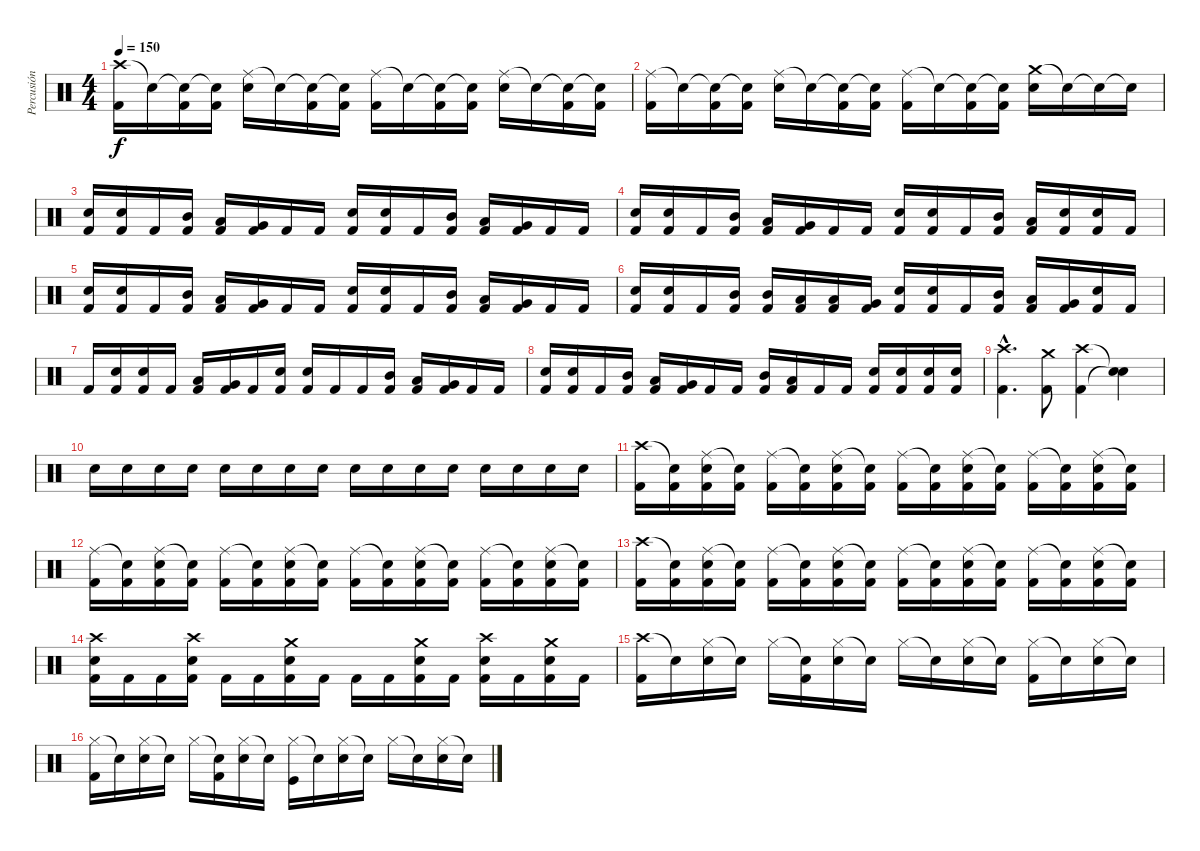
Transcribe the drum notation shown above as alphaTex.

\track ("Percusión" "Percusión") {instrument percussion}
\staff {score}
\articulation defaults
\ts (4 4)
\tempo 150
\clef neutral
\ks c
("Crash high (hit)" "Kick (hit) 2").16{dy f} "Snare (hit)"{t}.16 ("Snare (hit)"{t} "Kick (hit) 2").16 ("Snare (hit)"{t} "Kick (hit) 2").16 ("Ride (middle)" "Electric Snare (hit)").16 "Snare (hit)"{t}.16 ("Snare (hit)"{t} "Kick (hit) 2").16 ("Snare (hit)"{t} "Kick (hit) 2").16 ("Ride (middle)" "Kick (hit) 2").16 "Snare (hit)"{t}.16 ("Snare (hit)"{t} "Kick (hit) 2").16 ("Snare (hit)"{t} "Kick (hit) 2").16 ("Ride (middle)" "Electric Snare (hit)").16 "Snare (hit)"{t}.16 ("Snare (hit)"{t} "Kick (hit) 2").16 ("Snare (hit)"{t} "Kick (hit) 2").16 |
("Ride (middle)" "Kick (hit) 2").16 "Snare (hit)"{t}.16 ("Snare (hit)"{t} "Kick (hit) 2").16 ("Snare (hit)"{t} "Kick (hit) 2").16 ("Ride (middle)" "Electric Snare (hit)").16 "Snare (hit)"{t}.16 ("Snare (hit)"{t} "Kick (hit) 2").16 ("Snare (hit)"{t} "Kick (hit) 2").16 ("Ride (middle)" "Kick (hit) 2").16 "Snare (hit)"{t}.16 ("Snare (hit)"{t} "Kick (hit) 2").16 ("Snare (hit)"{t} "Kick (hit) 2").16 ("Crash medium (hit)" "Electric Snare (hit)").16 "Snare (hit)"{t}.16 "Snare (hit)"{t}.16 "Snare (hit)"{t}.16 |
("Electric Snare (hit)" "Kick (hit) 2").16 ("Electric Snare (hit)" "Kick (hit) 2").16 "Kick (hit) 2".16 ("Mid Tom (hit)" "Kick (hit) 2").16 ("Low Tom (hit)" "Kick (hit) 2").16 ("Very Low Tom (hit)" "Kick (hit) 2").16 "Kick (hit) 2".16 "Kick (hit) 2".16 ("Electric Snare (hit)" "Kick (hit) 2").16 ("Electric Snare (hit)" "Kick (hit) 2").16 "Kick (hit) 2".16 ("Mid Tom (hit)" "Kick (hit) 2").16 ("Low Tom (hit)" "Kick (hit) 2").16 ("Very Low Tom (hit)" "Kick (hit) 2").16 "Kick (hit) 2".16 "Kick (hit) 2".16 |
("Electric Snare (hit)" "Kick (hit) 2").16 ("Electric Snare (hit)" "Kick (hit) 2").16 "Kick (hit) 2".16 ("Mid Tom (hit)" "Kick (hit) 2").16 ("Low Tom (hit)" "Kick (hit) 2").16 ("Very Low Tom (hit)" "Kick (hit) 2").16 "Kick (hit) 2".16 "Kick (hit) 2".16 ("Electric Snare (hit)" "Kick (hit) 2").16 ("Electric Snare (hit)" "Kick (hit) 2").16 "Kick (hit) 2".16 ("Mid Tom (hit)" "Kick (hit) 2").16 ("Low Tom (hit)" "Kick (hit) 2").16 ("Electric Snare (hit)" "Kick (hit) 2").16 ("Electric Snare (hit)" "Kick (hit) 2").16 "Kick (hit) 2".16 |
("Electric Snare (hit)" "Kick (hit) 2").16 ("Electric Snare (hit)" "Kick (hit) 2").16 "Kick (hit) 2".16 ("Mid Tom (hit)" "Kick (hit) 2").16 ("Low Tom (hit)" "Kick (hit) 2").16 ("Very Low Tom (hit)" "Kick (hit) 2").16 "Kick (hit) 2".16 "Kick (hit) 2".16 ("Electric Snare (hit)" "Kick (hit) 2").16 ("Electric Snare (hit)" "Kick (hit) 2").16 "Kick (hit) 2".16 ("Mid Tom (hit)" "Kick (hit) 2").16 ("Low Tom (hit)" "Kick (hit) 2").16 ("Very Low Tom (hit)" "Kick (hit) 2").16 "Kick (hit) 2".16 "Kick (hit) 2".16 |
("Electric Snare (hit)" "Kick (hit) 2").16 ("Electric Snare (hit)" "Kick (hit) 2").16 "Kick (hit) 2".16 ("Mid Tom (hit)" "Kick (hit) 2").16 ("Mid Tom (hit)" "Kick (hit) 2").16 ("Low Tom (hit)" "Kick (hit) 2").16 ("Low Tom (hit)" "Kick (hit) 2").16 ("Very Low Tom (hit)" "Kick (hit) 2").16 ("Electric Snare (hit)" "Kick (hit) 2").16 ("Electric Snare (hit)" "Kick (hit) 2").16 "Kick (hit) 2".16 ("Mid Tom (hit)" "Kick (hit) 2").16 ("Low Tom (hit)" "Kick (hit) 2").16 ("Very Low Tom (hit)" "Kick (hit) 2").16 ("Electric Snare (hit)" "Kick (hit) 2").16 "Kick (hit) 2".16 |
"Kick (hit) 2".16 ("Electric Snare (hit)" "Kick (hit) 2").16 ("Electric Snare (hit)" "Kick (hit) 2").16 "Kick (hit) 2".16 ("Low Tom (hit)" "Kick (hit) 2").16 ("Very Low Tom (hit)" "Kick (hit) 2").16 "Kick (hit) 2".16 ("Electric Snare (hit)" "Kick (hit) 2").16 ("Electric Snare (hit)" "Kick (hit) 2").16 "Kick (hit) 2".16 "Kick (hit) 2".16 ("Mid Tom (hit)" "Kick (hit) 2").16 ("Low Tom (hit)" "Kick (hit) 2").16 ("Very Low Tom (hit)" "Kick (hit) 2").16 "Kick (hit) 2".16 "Kick (hit) 2".16 |
("Electric Snare (hit)" "Kick (hit) 2").16 ("Electric Snare (hit)" "Kick (hit) 2").16 "Kick (hit) 2".16 ("Mid Tom (hit)" "Kick (hit) 2").16 ("Low Tom (hit)" "Kick (hit) 2").16 ("Very Low Tom (hit)" "Kick (hit) 2").16 "Kick (hit) 2".16 "Kick (hit) 2".16 ("Mid Tom (hit)" "Kick (hit) 2").16 ("Low Tom (hit)" "Kick (hit) 2").16 "Kick (hit) 2".16 "Kick (hit) 2".16 ("Electric Snare (hit)" "Kick (hit) 2").16 ("Electric Snare (hit)" "Kick (hit) 2").16 ("Electric Snare (hit)" "Kick (hit) 2").16 ("Electric Snare (hit)" "Kick (hit) 2").16 |
("Crash high (hit)"{hac} "Kick (hit) 2"{hac}).4{d} ("Crash medium (hit)" "Kick (hit) 2").8 ("Crash high (hit)" "Kick (hit) 2").4 ("Snare (hit)"{t} "Snare (hit)"{t}).4 |
"Electric Snare (hit)".16 "Electric Snare (hit)".16 "Electric Snare (hit)".16 "Electric Snare (hit)".16 "Electric Snare (hit)".16 "Electric Snare (hit)".16 "Electric Snare (hit)".16 "Electric Snare (hit)".16 "Electric Snare (hit)".16 "Electric Snare (hit)".16 "Electric Snare (hit)".16 "Electric Snare (hit)".16 "Electric Snare (hit)".16 "Electric Snare (hit)".16 "Electric Snare (hit)".16 "Electric Snare (hit)".16 |
("Crash high (hit)" "Kick (hit) 2").16 ("Snare (hit)"{t} "Kick (hit) 2").16 ("Ride (middle)" "Electric Snare (hit)" "Kick (hit) 2").16 ("Snare (hit)"{t} "Kick (hit) 2").16 ("Ride (middle)" "Kick (hit) 2").16 ("Snare (hit)"{t} "Kick (hit) 2").16 ("Ride (middle)" "Electric Snare (hit)" "Kick (hit) 2").16 ("Snare (hit)"{t} "Kick (hit) 2").16 ("Ride (middle)" "Kick (hit) 2").16 ("Snare (hit)"{t} "Kick (hit) 2").16 ("Ride (middle)" "Electric Snare (hit)" "Kick (hit) 2").16 ("Snare (hit)"{t} "Kick (hit) 2").16 ("Ride (middle)" "Kick (hit) 2").16 ("Snare (hit)"{t} "Kick (hit) 2").16 ("Ride (middle)" "Electric Snare (hit)" "Kick (hit) 2").16 ("Snare (hit)"{t} "Kick (hit) 2").16 |
("Ride (middle)" "Kick (hit) 2").16 ("Snare (hit)"{t} "Kick (hit) 2").16 ("Ride (middle)" "Electric Snare (hit)" "Kick (hit) 2").16 ("Snare (hit)"{t} "Kick (hit) 2").16 ("Ride (middle)" "Kick (hit) 2").16 ("Snare (hit)"{t} "Kick (hit) 2").16 ("Ride (middle)" "Electric Snare (hit)" "Kick (hit) 2").16 ("Snare (hit)"{t} "Kick (hit) 2").16 ("Ride (middle)" "Kick (hit) 2").16 ("Snare (hit)"{t} "Kick (hit) 2").16 ("Ride (middle)" "Electric Snare (hit)" "Kick (hit) 2").16 ("Snare (hit)"{t} "Kick (hit) 2").16 ("Ride (middle)" "Kick (hit) 2").16 ("Snare (hit)"{t} "Kick (hit) 2").16 ("Ride (middle)" "Electric Snare (hit)" "Kick (hit) 2").16 ("Snare (hit)"{t} "Kick (hit) 2").16 |
("Crash high (hit)" "Kick (hit) 2").16 ("Snare (hit)"{t} "Kick (hit) 2").16 ("Ride (middle)" "Electric Snare (hit)" "Kick (hit) 2").16 ("Snare (hit)"{t} "Kick (hit) 2").16 ("Ride (middle)" "Kick (hit) 2").16 ("Snare (hit)"{t} "Kick (hit) 2").16 ("Ride (middle)" "Electric Snare (hit)" "Kick (hit) 2").16 ("Snare (hit)"{t} "Kick (hit) 2").16 ("Ride (middle)" "Kick (hit) 2").16 ("Snare (hit)"{t} "Kick (hit) 2").16 ("Ride (middle)" "Electric Snare (hit)" "Kick (hit) 2").16 ("Snare (hit)"{t} "Kick (hit) 2").16 ("Ride (middle)" "Kick (hit) 2").16 ("Snare (hit)"{t} "Kick (hit) 2").16 ("Ride (middle)" "Electric Snare (hit)" "Kick (hit) 2").16 ("Snare (hit)"{t} "Kick (hit) 2").16 |
("Crash high (hit)" "Electric Snare (hit)" "Kick (hit) 2").16 "Kick (hit) 2".16 "Kick (hit) 2".16 ("Crash high (hit)" "Electric Snare (hit)" "Kick (hit) 2").16 "Kick (hit) 2".16 "Kick (hit) 2".16 ("Crash medium (hit)" "Electric Snare (hit)" "Kick (hit) 2").16 "Kick (hit) 2".16 "Kick (hit) 2".16 "Kick (hit) 2".16 ("Crash medium (hit)" "Electric Snare (hit)" "Kick (hit) 2").16 "Kick (hit) 2".16 ("Crash high (hit)" "Electric Snare (hit)" "Kick (hit) 2").16 "Kick (hit) 2".16 ("Crash medium (hit)" "Electric Snare (hit)" "Kick (hit) 2").16 "Kick (hit) 2".16 |
("Crash high (hit)" "Kick (hit) 2").16 "Snare (hit)"{t}.16 ("Hi-Hat (closed)" "Electric Snare (hit)").16 "Snare (hit)"{t}.16 "Hi-Hat (closed)".16 ("Snare (hit)"{t} "Kick (hit) 2").16 ("Hi-Hat (closed)" "Electric Snare (hit)").16 "Snare (hit)"{t}.16 "Hi-Hat (closed)".16 "Snare (hit)"{t}.16 ("Hi-Hat (closed)" "Electric Snare (hit)").16 "Snare (hit)"{t}.16 ("Hi-Hat (closed)" "Kick (hit) 2").16 "Snare (hit)"{t}.16 ("Hi-Hat (closed)" "Electric Snare (hit)").16 "Snare (hit)"{t}.16 |
("Hi-Hat (closed)" "Kick (hit) 2").16 "Snare (hit)"{t}.16 ("Hi-Hat (closed)" "Electric Snare (hit)").16 "Snare (hit)"{t}.16 "Hi-Hat (closed)".16 ("Snare (hit)"{t} "Kick (hit) 2").16 ("Hi-Hat (closed)" "Electric Snare (hit)").16 "Snare (hit)"{t}.16 ("Hi-Hat (closed)" "Kick (hit)").16 "Snare (hit)"{t}.16 ("Hi-Hat (closed)" "Electric Snare (hit)").16 "Snare (hit)"{t}.16 "Hi-Hat (closed)".16 "Snare (hit)"{t}.16 ("Hi-Hat (closed)" "Electric Snare (hit)").16 "Snare (hit)"{t}.16
